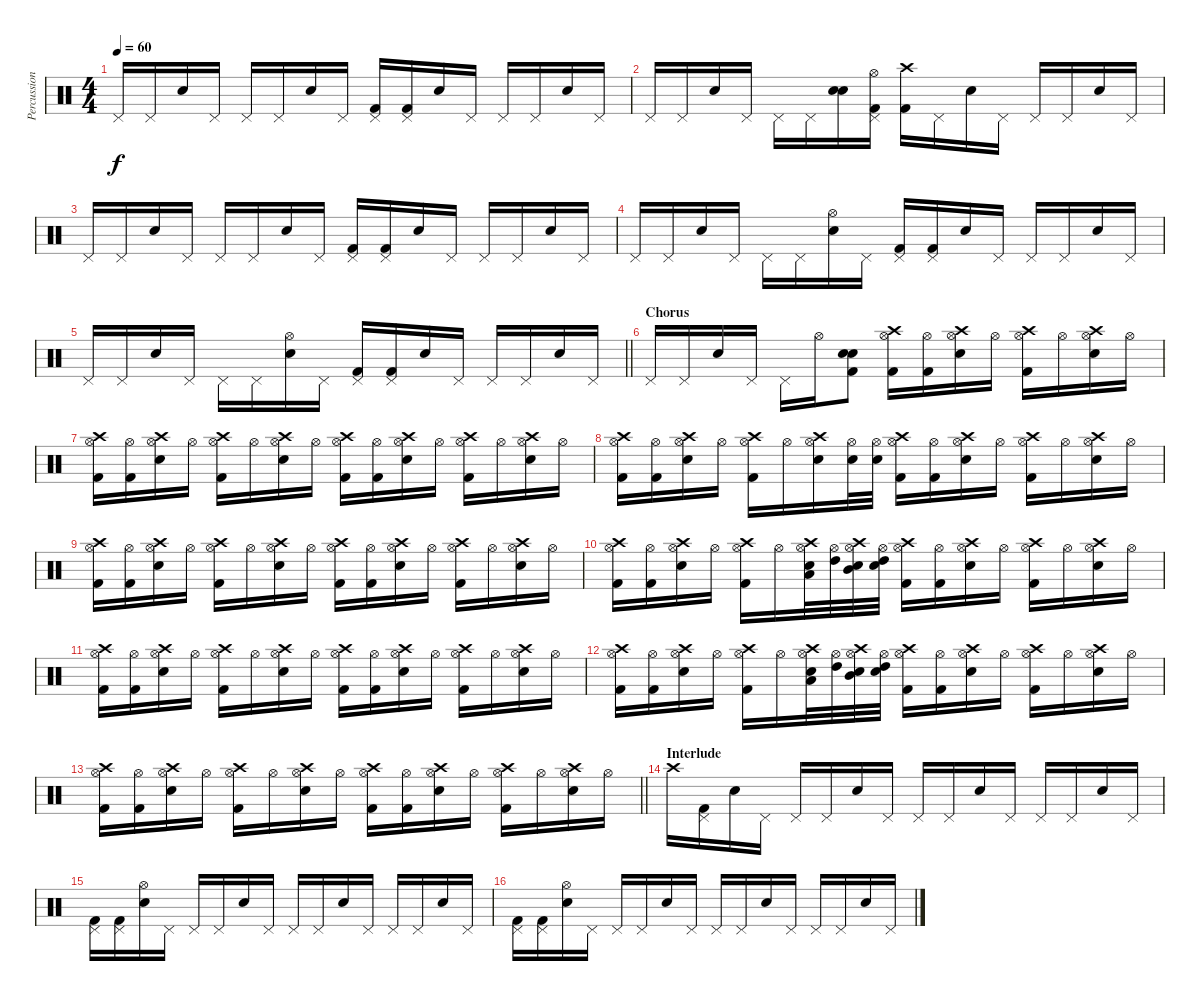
\track ("Percussion" "Percussion") {instrument percussion}
\staff {score}
\articulation defaults
\ts (4 4)
\tempo 60
\clef neutral
\ks c "Pedal Hi-Hat (hit)".16{dy f} "Pedal Hi-Hat (hit)".16 "Snare (hit) 2".16 "Pedal Hi-Hat (hit)".16 "Pedal Hi-Hat (hit)".16 "Pedal Hi-Hat (hit)".16 "Snare (hit) 2".16 "Pedal Hi-Hat (hit)".16
("Pedal Hi-Hat (hit)" "Kick (hit) 2").16 ("Pedal Hi-Hat (hit)" "Kick (hit) 2").16 "Snare (hit) 2".16 "Pedal Hi-Hat (hit)".16 "Pedal Hi-Hat (hit)".16 "Pedal Hi-Hat (hit)".16 "Snare (hit) 2".16 "Pedal Hi-Hat (hit)".16 |
"Pedal Hi-Hat (hit)".16 "Pedal Hi-Hat (hit)".16 "Snare (hit) 2".16 "Pedal Hi-Hat (hit)".16 "Pedal Hi-Hat (hit)".16 "Pedal Hi-Hat (hit)".16 ("Electric Snare (hit)" "Snare (hit) 2").16 ("Hi-Hat (open)" "Pedal Hi-Hat (hit)" "Kick (hit) 2").16 ("Crash high (hit)" "Kick (hit) 2").16 "Pedal Hi-Hat (hit)".16 "Snare (hit) 2".16 "Pedal Hi-Hat (hit)".16 "Pedal Hi-Hat (hit)".16 "Pedal Hi-Hat (hit)".16 "Snare (hit) 2".16 "Pedal Hi-Hat (hit)".16 |
"Pedal Hi-Hat (hit)".16 "Pedal Hi-Hat (hit)".16 "Snare (hit) 2".16 "Pedal Hi-Hat (hit)".16 "Pedal Hi-Hat (hit)".16 "Pedal Hi-Hat (hit)".16 "Snare (hit) 2".16 "Pedal Hi-Hat (hit)".16 ("Pedal Hi-Hat (hit)" "Kick (hit) 2").16 ("Pedal Hi-Hat (hit)" "Kick (hit) 2").16 "Snare (hit) 2".16 "Pedal Hi-Hat (hit)".16 "Pedal Hi-Hat (hit)".16 "Pedal Hi-Hat (hit)".16 "Snare (hit) 2".16 "Pedal Hi-Hat (hit)".16 |
"Pedal Hi-Hat (hit)".16 "Pedal Hi-Hat (hit)".16 "Snare (hit) 2".16 "Pedal Hi-Hat (hit)".16 "Pedal Hi-Hat (hit)".16 "Pedal Hi-Hat (hit)".16 ("Hi-Hat (open)" "Snare (hit) 2").16 "Pedal Hi-Hat (hit)".16 ("Pedal Hi-Hat (hit)" "Kick (hit) 2").16 ("Pedal Hi-Hat (hit)" "Kick (hit) 2").16 "Snare (hit) 2".16 "Pedal Hi-Hat (hit)".16 "Pedal Hi-Hat (hit)".16 "Pedal Hi-Hat (hit)".16 "Snare (hit) 2".16 "Pedal Hi-Hat (hit)".16 |
\barLineRight lightlight "Pedal Hi-Hat (hit)".16 "Pedal Hi-Hat (hit)".16 "Snare (hit) 2".16 "Pedal Hi-Hat (hit)".16 "Pedal Hi-Hat (hit)".16 "Pedal Hi-Hat (hit)".16
("Hi-Hat (open)" "Snare (hit) 2").16 "Pedal Hi-Hat (hit)".16 ("Pedal Hi-Hat (hit)" "Kick (hit) 2").16 ("Pedal Hi-Hat (hit)" "Kick (hit) 2").16 "Snare (hit) 2".16 "Pedal Hi-Hat (hit)".16 "Pedal Hi-Hat (hit)".16 "Pedal Hi-Hat (hit)".16 "Snare (hit) 2".16 "Pedal Hi-Hat (hit)".16 |
\section ("" "Chorus")
"Pedal Hi-Hat (hit)".16 "Pedal Hi-Hat (hit)".16 "Snare (hit) 2".16 "Pedal Hi-Hat (hit)".16 "Pedal Hi-Hat (hit)".16 "Hi-Hat (open)".16 ("Electric Snare (hit)" "Snare (hit) 2" "Kick (hit) 2").8 ("Hi-Hat (open)" "Crash high (hit)" "Kick (hit) 2").16 ("Hi-Hat (open)" "Kick (hit) 2").16 ("Hi-Hat (open)" "Crash high (hit)" "Snare (hit) 2").16 "Hi-Hat (open)".16 ("Hi-Hat (open)" "Crash high (hit)" "Kick (hit) 2").16 "Hi-Hat (open)".16 ("Hi-Hat (open)" "Crash high (hit)" "Snare (hit) 2").16 "Hi-Hat (open)".16 |
("Hi-Hat (open)" "Crash high (hit)" "Kick (hit) 2").16 ("Hi-Hat (open)" "Kick (hit) 2").16 ("Hi-Hat (open)" "Crash high (hit)" "Snare (hit) 2").16 "Hi-Hat (open)".16 ("Hi-Hat (open)" "Crash high (hit)" "Kick (hit) 2").16 "Hi-Hat (open)".16 ("Hi-Hat (open)" "Crash high (hit)" "Snare (hit) 2").16 "Hi-Hat (open)".16 ("Hi-Hat (open)" "Crash high (hit)" "Kick (hit) 2").16 ("Hi-Hat (open)" "Kick (hit) 2").16 ("Hi-Hat (open)" "Crash high (hit)" "Snare (hit) 2").16 "Hi-Hat (open)".16 ("Hi-Hat (open)" "Crash high (hit)" "Kick (hit) 2").16 "Hi-Hat (open)".16 ("Hi-Hat (open)" "Crash high (hit)" "Snare (hit) 2").16 "Hi-Hat (open)".16 |
("Hi-Hat (open)" "Crash high (hit)" "Kick (hit) 2").16 ("Hi-Hat (open)" "Kick (hit) 2").16 ("Hi-Hat (open)" "Crash high (hit)" "Snare (hit) 2").16 "Hi-Hat (open)".16 ("Hi-Hat (open)" "Crash high (hit)" "Kick (hit) 2").16 "Hi-Hat (open)".16 ("Hi-Hat (open)" "Crash high (hit)" "Snare (hit) 2").16 ("Hi-Hat (open)" "Snare (hit) 2").32 ("Hi-Hat (open)" "Snare (hit) 2").32 ("Hi-Hat (open)" "Crash high (hit)" "Kick (hit) 2").16 ("Hi-Hat (open)" "Kick (hit) 2").16 ("Hi-Hat (open)" "Crash high (hit)" "Snare (hit) 2").16 "Hi-Hat (open)".16 ("Hi-Hat (open)" "Crash high (hit)" "Kick (hit) 2").16 "Hi-Hat (open)".16 ("Hi-Hat (open)" "Crash high (hit)" "Snare (hit) 2").16 "Hi-Hat (open)".16 |
("Hi-Hat (open)" "Crash high (hit)" "Kick (hit) 2").16 ("Hi-Hat (open)" "Kick (hit) 2").16 ("Hi-Hat (open)" "Crash high (hit)" "Snare (hit) 2").16 "Hi-Hat (open)".16 ("Hi-Hat (open)" "Crash high (hit)" "Kick (hit) 2").16 "Hi-Hat (open)".16 ("Hi-Hat (open)" "Crash high (hit)" "Snare (hit) 2").16 "Hi-Hat (open)".16 ("Hi-Hat (open)" "Crash high (hit)" "Kick (hit) 2").16 ("Hi-Hat (open)" "Kick (hit) 2").16 ("Hi-Hat (open)" "Crash high (hit)" "Snare (hit) 2").16 "Hi-Hat (open)".16 ("Hi-Hat (open)" "Crash high (hit)" "Kick (hit) 2").16 "Hi-Hat (open)".16 ("Hi-Hat (open)" "Crash high (hit)" "Snare (hit) 2").16 "Hi-Hat (open)".16 |
("Hi-Hat (open)" "Crash high (hit)" "Kick (hit) 2").16 ("Hi-Hat (open)" "Kick (hit) 2").16 ("Hi-Hat (open)" "Crash high (hit)" "Snare (hit) 2").16 "Hi-Hat (open)".16 ("Hi-Hat (open)" "Crash high (hit)" "Kick (hit) 2").16 "Hi-Hat (open)".16 ("Hi-Hat (open)" "Crash high (hit)" "Low Tom (hit)" "Snare (hit) 2").32 ("Hi-Hat (open)" "High Tom (hit)").32 ("Hi-Hat (open)" "Crash high (hit)" "Mid Tom (hit)" "Snare (hit) 2").32 ("Hi-Hat (open)" "High Tom (hit)" "Snare (hit) 2").32 ("Hi-Hat (open)" "Crash high (hit)" "Kick (hit) 2").16 ("Hi-Hat (open)" "Kick (hit) 2").16 ("Hi-Hat (open)" "Crash high (hit)" "Snare (hit) 2").16 "Hi-Hat (open)".16 ("Hi-Hat (open)" "Crash high (hit)" "Kick (hit) 2").16 "Hi-Hat (open)".16 ("Hi-Hat (open)" "Crash high (hit)" "Snare (hit) 2").16 "Hi-Hat (open)".16 |
("Hi-Hat (open)" "Crash high (hit)" "Kick (hit) 2").16 ("Hi-Hat (open)" "Kick (hit) 2").16 ("Hi-Hat (open)" "Crash high (hit)" "Snare (hit) 2").16 "Hi-Hat (open)".16 ("Hi-Hat (open)" "Crash high (hit)" "Kick (hit) 2").16 "Hi-Hat (open)".16 ("Hi-Hat (open)" "Crash high (hit)" "Snare (hit) 2").16 "Hi-Hat (open)".16 ("Hi-Hat (open)" "Crash high (hit)" "Kick (hit) 2").16 ("Hi-Hat (open)" "Kick (hit) 2").16 ("Hi-Hat (open)" "Crash high (hit)" "Snare (hit) 2").16 "Hi-Hat (open)".16 ("Hi-Hat (open)" "Crash high (hit)" "Kick (hit) 2").16 "Hi-Hat (open)".16 ("Hi-Hat (open)" "Crash high (hit)" "Snare (hit) 2").16 "Hi-Hat (open)".16 |
("Hi-Hat (open)" "Crash high (hit)" "Kick (hit) 2").16 ("Hi-Hat (open)" "Kick (hit) 2").16 ("Hi-Hat (open)" "Crash high (hit)" "Snare (hit) 2").16 "Hi-Hat (open)".16 ("Hi-Hat (open)" "Crash high (hit)" "Kick (hit) 2").16 "Hi-Hat (open)".16 ("Hi-Hat (open)" "Crash high (hit)" "Low Tom (hit)" "Snare (hit) 2").32 ("Hi-Hat (open)" "High Tom (hit)").32 ("Hi-Hat (open)" "Crash high (hit)" "Mid Tom (hit)" "Snare (hit) 2").32 ("Hi-Hat (open)" "High Tom (hit)" "Snare (hit) 2").32 ("Hi-Hat (open)" "Crash high (hit)" "Kick (hit) 2").16 ("Hi-Hat (open)" "Kick (hit) 2").16 ("Hi-Hat (open)" "Crash high (hit)" "Snare (hit) 2").16 "Hi-Hat (open)".16 ("Hi-Hat (open)" "Crash high (hit)" "Kick (hit) 2").16 "Hi-Hat (open)".16 ("Hi-Hat (open)" "Crash high (hit)" "Snare (hit) 2").16 "Hi-Hat (open)".16 |
\barLineRight lightlight
("Hi-Hat (open)" "Crash high (hit)" "Kick (hit) 2").16 ("Hi-Hat (open)" "Kick (hit) 2").16 ("Hi-Hat (open)" "Crash high (hit)" "Snare (hit) 2").16 "Hi-Hat (open)".16 ("Hi-Hat (open)" "Crash high (hit)" "Kick (hit) 2").16 "Hi-Hat (open)".16 ("Hi-Hat (open)" "Crash high (hit)" "Snare (hit) 2").16 "Hi-Hat (open)".16 ("Hi-Hat (open)" "Crash high (hit)" "Kick (hit) 2").16 ("Hi-Hat (open)" "Kick (hit) 2").16 ("Hi-Hat (open)" "Crash high (hit)" "Snare (hit) 2").16 "Hi-Hat (open)".16 ("Hi-Hat (open)" "Crash high (hit)" "Kick (hit) 2").16 "Hi-Hat (open)".16 ("Hi-Hat (open)" "Crash high (hit)" "Snare (hit) 2").16 "Hi-Hat (open)".16 |
\section ("" "Interlude")
"Crash high (hit)".16 ("Pedal Hi-Hat (hit)" "Kick (hit) 2").16{volume 13} "Snare (hit) 2".16 "Pedal Hi-Hat (hit)".16 "Pedal Hi-Hat (hit)".16 "Pedal Hi-Hat (hit)".16 "Snare (hit) 2".16 "Pedal Hi-Hat (hit)".16 "Pedal Hi-Hat (hit)".16 "Pedal Hi-Hat (hit)".16 "Snare (hit) 2".16 "Pedal Hi-Hat (hit)".16 "Pedal Hi-Hat (hit)".16 "Pedal Hi-Hat (hit)".16 "Snare (hit) 2".16 "Pedal Hi-Hat (hit)".16 |
("Pedal Hi-Hat (hit)" "Kick (hit) 2").16 ("Pedal Hi-Hat (hit)" "Kick (hit) 2").16 ("Hi-Hat (open)" "Snare (hit) 2").16 "Pedal Hi-Hat (hit)".16 "Pedal Hi-Hat (hit)".16 "Pedal Hi-Hat (hit)".16 "Snare (hit) 2".16 "Pedal Hi-Hat (hit)".16 "Pedal Hi-Hat (hit)".16 "Pedal Hi-Hat (hit)".16 "Snare (hit) 2".16 "Pedal Hi-Hat (hit)".16 "Pedal Hi-Hat (hit)".16 "Pedal Hi-Hat (hit)".16 "Snare (hit) 2".16 "Pedal Hi-Hat (hit)".16 |
("Pedal Hi-Hat (hit)" "Kick (hit) 2").16 ("Pedal Hi-Hat (hit)" "Kick (hit) 2").16 ("Hi-Hat (open)" "Snare (hit) 2").16 "Pedal Hi-Hat (hit)".16 "Pedal Hi-Hat (hit)".16 "Pedal Hi-Hat (hit)".16 "Snare (hit) 2".16 "Pedal Hi-Hat (hit)".16 "Pedal Hi-Hat (hit)".16 "Pedal Hi-Hat (hit)".16 "Snare (hit) 2".16 "Pedal Hi-Hat (hit)".16 "Pedal Hi-Hat (hit)".16 "Pedal Hi-Hat (hit)".16 "Snare (hit) 2".16 "Pedal Hi-Hat (hit)".16
